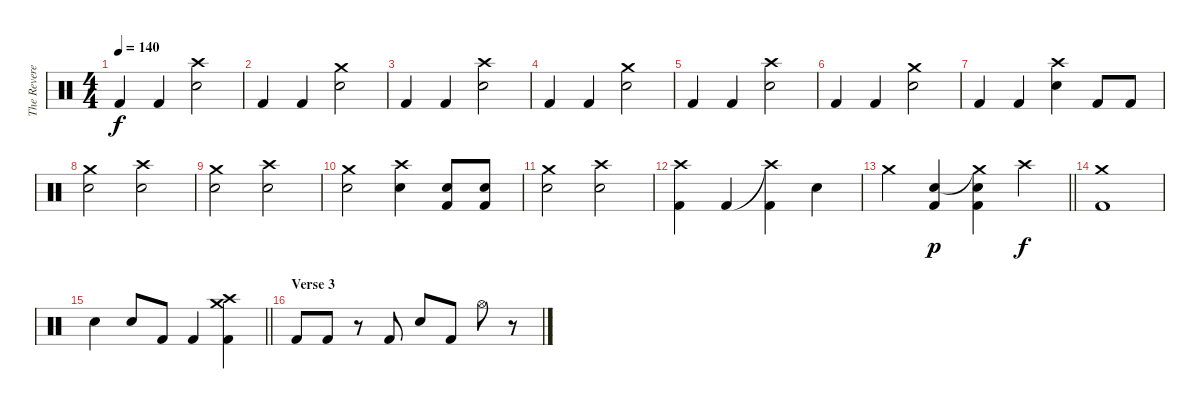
\track ("The Reverend" "The Revere") {instrument percussion}
\staff {score}
\articulation defaults
\ts (4 4)
\tempo 140
\clef neutral
\ks c "Kick (hit) 2".4{dy f} "Kick (hit) 2".4
("Crash high (hit)" "Snare (hit) 2").2 |
"Kick (hit) 2".4 "Kick (hit) 2".4 ("Crash medium (hit)" "Snare (hit) 2").2 |
"Kick (hit) 2".4 "Kick (hit) 2".4 ("Crash high (hit)" "Snare (hit) 2").2 |
"Kick (hit) 2".4 "Kick (hit) 2".4 ("Crash medium (hit)" "Snare (hit) 2").2 |
"Kick (hit) 2".4 "Kick (hit) 2".4 ("Crash high (hit)" "Snare (hit) 2").2 |
"Kick (hit) 2".4 "Kick (hit) 2".4 ("Crash medium (hit)" "Snare (hit) 2").2 |
"Kick (hit) 2".4 "Kick (hit) 2".4 ("Crash high (hit)" "Snare (hit) 2").4 "Kick (hit) 2".8 "Kick (hit) 2".8 |
("Crash medium (hit)" "Snare (hit) 2").2 ("Crash high (hit)" "Snare (hit) 2").2 |
("Crash medium (hit)" "Snare (hit) 2").2 ("Crash high (hit)" "Snare (hit) 2").2 |
("Crash medium (hit)" "Snare (hit) 2").2 ("Crash high (hit)" "Snare (hit) 2").4 ("Snare (hit) 2" "Kick (hit) 2").8 ("Snare (hit) 2" "Kick (hit) 2").8 |
("Crash medium (hit)" "Snare (hit) 2").2 ("Crash high (hit)" "Snare (hit) 2").2 |
("Crash high (hit)" "Kick (hit) 2").4 "Kick (hit) 2".4 ("Crash high (hit)"{t} "Kick (hit) 2").4 "Snare (hit) 2".4 |
\barLineRight lightlight "Crash medium (hit)".4
("Snare (hit) 2" "Kick (hit) 2").4{dy p} ("Crash medium (hit)"{t} "Snare (hit) 2" "Kick (hit) 2").4 "Crash high (hit)".4{dy f} |
("Crash medium (hit)" "Kick (hit) 2").1 |
\barLineRight lightlight "Snare (hit) 2".4 "Snare (hit) 2".8 "Kick (hit) 2".8 "Kick (hit) 2".4
("Crash medium (hit)" "Crash high (hit)" "Kick (hit) 2").4 |
\section ("" "Verse 3")
"Kick (hit) 2".8 "Kick (hit) 2".8 r.8 "Kick (hit) 2".8 "Snare (hit) 2".8 "Kick (hit) 2".8 "Hi-Hat (open)".8 r.8
